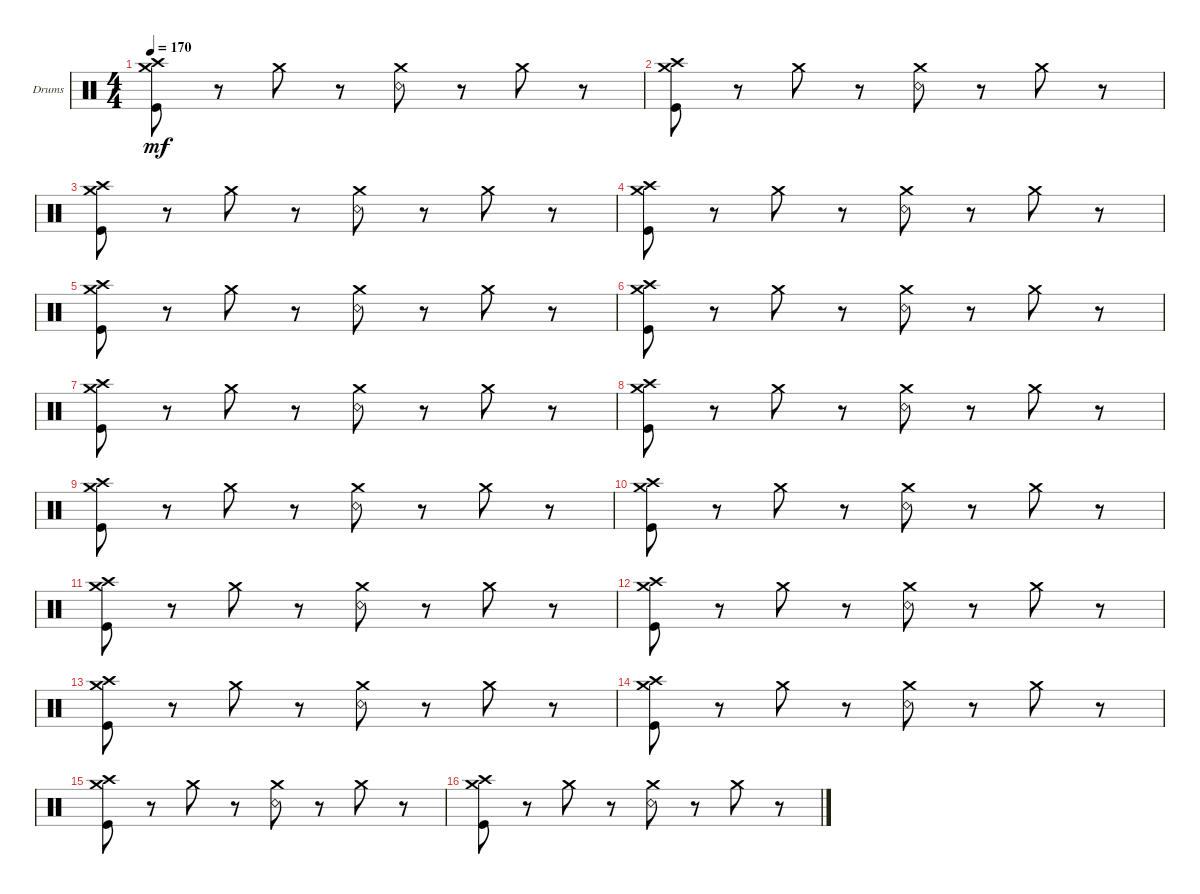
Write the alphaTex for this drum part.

\defaultSystemsLayout 4
\bracketExtendMode groupsimilarinstruments
\firstSystemTrackNameOrientation horizontal
\otherSystemsTrackNameOrientation horizontal
\track ("Drumkit" "Drums") {instrument percussion}
\staff {score}
\articulation defaults
\ts (4 4)
\tempo 170
\clef neutral
\ks c
("Kick (hit)" "Crash medium (hit)" "Crash high (hit)").8{dy mf} r.8 "Crash medium (hit)".8 r.8 ("Snare (rim shot)" "Crash medium (hit)").8 r.8 "Crash medium (hit)".8 r.8 |
("Kick (hit)" "Crash medium (hit)" "Crash high (hit)").8 r.8 "Crash medium (hit)".8 r.8 ("Snare (rim shot)" "Crash medium (hit)").8 r.8 "Crash medium (hit)".8 r.8 |
("Kick (hit)" "Crash medium (hit)" "Crash high (hit)").8 r.8 "Crash medium (hit)".8 r.8 ("Snare (rim shot)" "Crash medium (hit)").8 r.8 "Crash medium (hit)".8 r.8 |
("Kick (hit)" "Crash medium (hit)" "Crash high (hit)").8 r.8 "Crash medium (hit)".8 r.8 ("Snare (rim shot)" "Crash medium (hit)").8 r.8 "Crash medium (hit)".8 r.8 |
("Kick (hit)" "Crash medium (hit)" "Crash high (hit)").8 r.8 "Crash medium (hit)".8 r.8 ("Snare (rim shot)" "Crash medium (hit)").8 r.8 "Crash medium (hit)".8 r.8 |
("Kick (hit)" "Crash medium (hit)" "Crash high (hit)").8 r.8 "Crash medium (hit)".8 r.8 ("Snare (rim shot)" "Crash medium (hit)").8 r.8 "Crash medium (hit)".8 r.8 |
("Kick (hit)" "Crash medium (hit)" "Crash high (hit)").8 r.8 "Crash medium (hit)".8 r.8 ("Snare (rim shot)" "Crash medium (hit)").8 r.8 "Crash medium (hit)".8 r.8 |
("Kick (hit)" "Crash medium (hit)" "Crash high (hit)").8 r.8 "Crash medium (hit)".8 r.8 ("Snare (rim shot)" "Crash medium (hit)").8 r.8 "Crash medium (hit)".8 r.8 |
("Kick (hit)" "Crash medium (hit)" "Crash high (hit)").8 r.8 "Crash medium (hit)".8 r.8 ("Snare (rim shot)" "Crash medium (hit)").8 r.8 "Crash medium (hit)".8 r.8 |
("Kick (hit)" "Crash medium (hit)" "Crash high (hit)").8 r.8 "Crash medium (hit)".8 r.8 ("Snare (rim shot)" "Crash medium (hit)").8 r.8 "Crash medium (hit)".8 r.8 |
("Kick (hit)" "Crash medium (hit)" "Crash high (hit)").8 r.8 "Crash medium (hit)".8 r.8 ("Snare (rim shot)" "Crash medium (hit)").8 r.8 "Crash medium (hit)".8 r.8 |
("Kick (hit)" "Crash medium (hit)" "Crash high (hit)").8 r.8 "Crash medium (hit)".8 r.8 ("Snare (rim shot)" "Crash medium (hit)").8 r.8 "Crash medium (hit)".8 r.8 |
("Kick (hit)" "Crash medium (hit)" "Crash high (hit)").8 r.8 "Crash medium (hit)".8 r.8 ("Snare (rim shot)" "Crash medium (hit)").8 r.8 "Crash medium (hit)".8 r.8 |
("Kick (hit)" "Crash medium (hit)" "Crash high (hit)").8 r.8 "Crash medium (hit)".8 r.8 ("Snare (rim shot)" "Crash medium (hit)").8 r.8 "Crash medium (hit)".8 r.8 |
("Kick (hit)" "Crash medium (hit)" "Crash high (hit)").8 r.8 "Crash medium (hit)".8 r.8 ("Snare (rim shot)" "Crash medium (hit)").8 r.8 "Crash medium (hit)".8 r.8 |
("Kick (hit)" "Crash medium (hit)" "Crash high (hit)").8 r.8 "Crash medium (hit)".8 r.8 ("Snare (rim shot)" "Crash medium (hit)").8 r.8 "Crash medium (hit)".8 r.8
